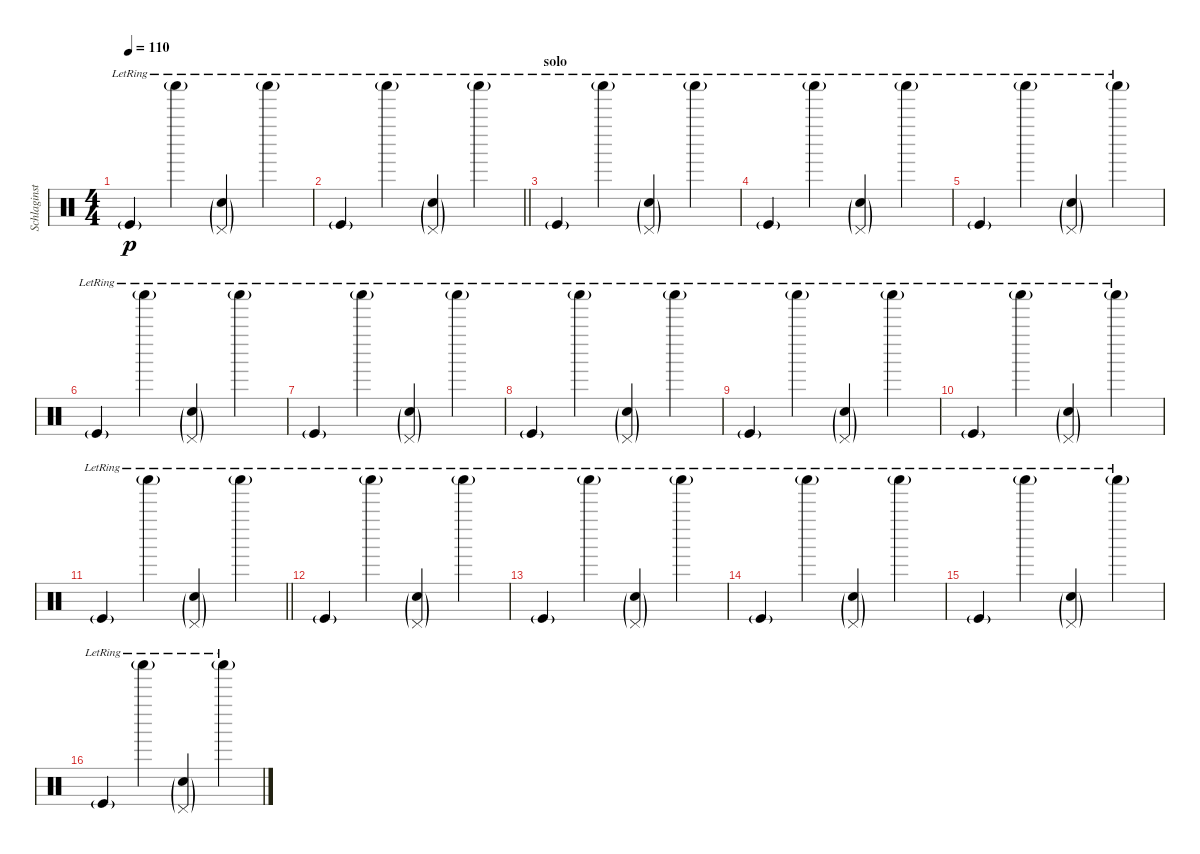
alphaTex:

\track ("Schlaginstrumente - Auswahl" "Schlaginst") {instrument percussion}
\staff {score}
\articulation defaults
\ts (4 4)
\tempo 110
\clef neutral
\ks c "Kick (hit)"{g lr}.4{dy p} "Shaker (hit)"{g lr}.4
("Snare (hit) 2"{g lr} "Pedal Hi-Hat (hit)"{g lr}).4 "Shaker (hit)"{g lr}.4 |
\barLineRight lightlight "Kick (hit)"{g lr}.4 "Shaker (hit)"{g lr}.4
("Snare (hit) 2"{g lr} "Pedal Hi-Hat (hit)"{g lr}).4 "Shaker (hit)"{g lr}.4 |
\section ("" "solo")
"Kick (hit)"{g lr}.4 "Shaker (hit)"{g lr}.4 ("Snare (hit) 2"{g lr} "Pedal Hi-Hat (hit)"{g lr}).4 "Shaker (hit)"{g lr}.4 |
"Kick (hit)"{g lr}.4 "Shaker (hit)"{g lr}.4 ("Snare (hit) 2"{g lr} "Pedal Hi-Hat (hit)"{g lr}).4 "Shaker (hit)"{g lr}.4 |
"Kick (hit)"{g lr}.4 "Shaker (hit)"{g lr}.4 ("Snare (hit) 2"{g lr} "Pedal Hi-Hat (hit)"{g lr}).4 "Shaker (hit)"{g lr}.4 |
"Kick (hit)"{g lr}.4 "Shaker (hit)"{g lr}.4 ("Snare (hit) 2"{g lr} "Pedal Hi-Hat (hit)"{g lr}).4 "Shaker (hit)"{g lr}.4 |
"Kick (hit)"{g lr}.4 "Shaker (hit)"{g lr}.4 ("Snare (hit) 2"{g lr} "Pedal Hi-Hat (hit)"{g lr}).4 "Shaker (hit)"{g lr}.4 |
"Kick (hit)"{g lr}.4 "Shaker (hit)"{g lr}.4 ("Snare (hit) 2"{g lr} "Pedal Hi-Hat (hit)"{g lr}).4 "Shaker (hit)"{g lr}.4 |
"Kick (hit)"{g lr}.4 "Shaker (hit)"{g lr}.4 ("Snare (hit) 2"{g lr} "Pedal Hi-Hat (hit)"{g lr}).4 "Shaker (hit)"{g lr}.4 |
"Kick (hit)"{g lr}.4 "Shaker (hit)"{g lr}.4 ("Snare (hit) 2"{g lr} "Pedal Hi-Hat (hit)"{g lr}).4 "Shaker (hit)"{g lr}.4 |
\barLineRight lightlight "Kick (hit)"{g lr}.4 "Shaker (hit)"{g lr}.4
("Snare (hit) 2"{g lr} "Pedal Hi-Hat (hit)"{g lr}).4 "Shaker (hit)"{g lr}.4 |
"Kick (hit)"{g lr}.4 "Shaker (hit)"{g lr}.4 ("Snare (hit) 2"{g lr} "Pedal Hi-Hat (hit)"{g lr}).4 "Shaker (hit)"{g lr}.4 |
"Kick (hit)"{g lr}.4 "Shaker (hit)"{g lr}.4 ("Snare (hit) 2"{g lr} "Pedal Hi-Hat (hit)"{g lr}).4 "Shaker (hit)"{g lr}.4 |
"Kick (hit)"{g lr}.4 "Shaker (hit)"{g lr}.4 ("Snare (hit) 2"{g lr} "Pedal Hi-Hat (hit)"{g lr}).4 "Shaker (hit)"{g lr}.4 |
"Kick (hit)"{g lr}.4 "Shaker (hit)"{g lr}.4 ("Snare (hit) 2"{g lr} "Pedal Hi-Hat (hit)"{g lr}).4 "Shaker (hit)"{g lr}.4 |
"Kick (hit)"{g lr}.4 "Shaker (hit)"{g lr}.4 ("Snare (hit) 2"{g lr} "Pedal Hi-Hat (hit)"{g lr}).4 "Shaker (hit)"{g lr}.4
